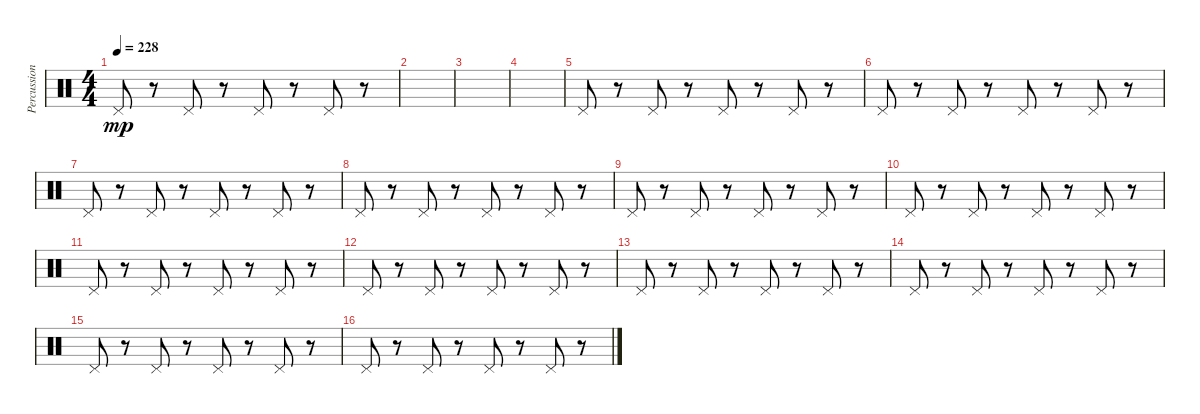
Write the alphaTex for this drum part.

\track ("Percussions" "Percussion") {instrument percussion}
\staff {score}
\articulation defaults
\ts (4 4)
\tempo 228
\clef neutral
\ks c "Pedal Hi-Hat (hit)".8{dy mp}
r.8 "Pedal Hi-Hat (hit)".8 r.8 "Pedal Hi-Hat (hit)".8 r.8 "Pedal Hi-Hat (hit)".8 r.8 |
|
|
|
"Pedal Hi-Hat (hit)".8 r.8 "Pedal Hi-Hat (hit)".8 r.8 "Pedal Hi-Hat (hit)".8 r.8 "Pedal Hi-Hat (hit)".8 r.8 |
"Pedal Hi-Hat (hit)".8 r.8 "Pedal Hi-Hat (hit)".8 r.8 "Pedal Hi-Hat (hit)".8 r.8 "Pedal Hi-Hat (hit)".8 r.8 |
"Pedal Hi-Hat (hit)".8 r.8 "Pedal Hi-Hat (hit)".8 r.8 "Pedal Hi-Hat (hit)".8 r.8 "Pedal Hi-Hat (hit)".8 r.8 |
"Pedal Hi-Hat (hit)".8 r.8 "Pedal Hi-Hat (hit)".8 r.8 "Pedal Hi-Hat (hit)".8 r.8 "Pedal Hi-Hat (hit)".8 r.8 |
"Pedal Hi-Hat (hit)".8 r.8 "Pedal Hi-Hat (hit)".8 r.8 "Pedal Hi-Hat (hit)".8 r.8 "Pedal Hi-Hat (hit)".8 r.8 |
"Pedal Hi-Hat (hit)".8 r.8 "Pedal Hi-Hat (hit)".8 r.8 "Pedal Hi-Hat (hit)".8 r.8 "Pedal Hi-Hat (hit)".8 r.8 |
"Pedal Hi-Hat (hit)".8 r.8 "Pedal Hi-Hat (hit)".8 r.8 "Pedal Hi-Hat (hit)".8 r.8 "Pedal Hi-Hat (hit)".8 r.8 |
"Pedal Hi-Hat (hit)".8 r.8 "Pedal Hi-Hat (hit)".8 r.8 "Pedal Hi-Hat (hit)".8 r.8 "Pedal Hi-Hat (hit)".8 r.8 |
"Pedal Hi-Hat (hit)".8 r.8 "Pedal Hi-Hat (hit)".8 r.8 "Pedal Hi-Hat (hit)".8 r.8 "Pedal Hi-Hat (hit)".8 r.8 |
"Pedal Hi-Hat (hit)".8 r.8 "Pedal Hi-Hat (hit)".8 r.8 "Pedal Hi-Hat (hit)".8 r.8 "Pedal Hi-Hat (hit)".8 r.8 |
"Pedal Hi-Hat (hit)".8 r.8 "Pedal Hi-Hat (hit)".8 r.8 "Pedal Hi-Hat (hit)".8 r.8 "Pedal Hi-Hat (hit)".8 r.8 |
"Pedal Hi-Hat (hit)".8 r.8 "Pedal Hi-Hat (hit)".8 r.8 "Pedal Hi-Hat (hit)".8 r.8 "Pedal Hi-Hat (hit)".8 r.8
